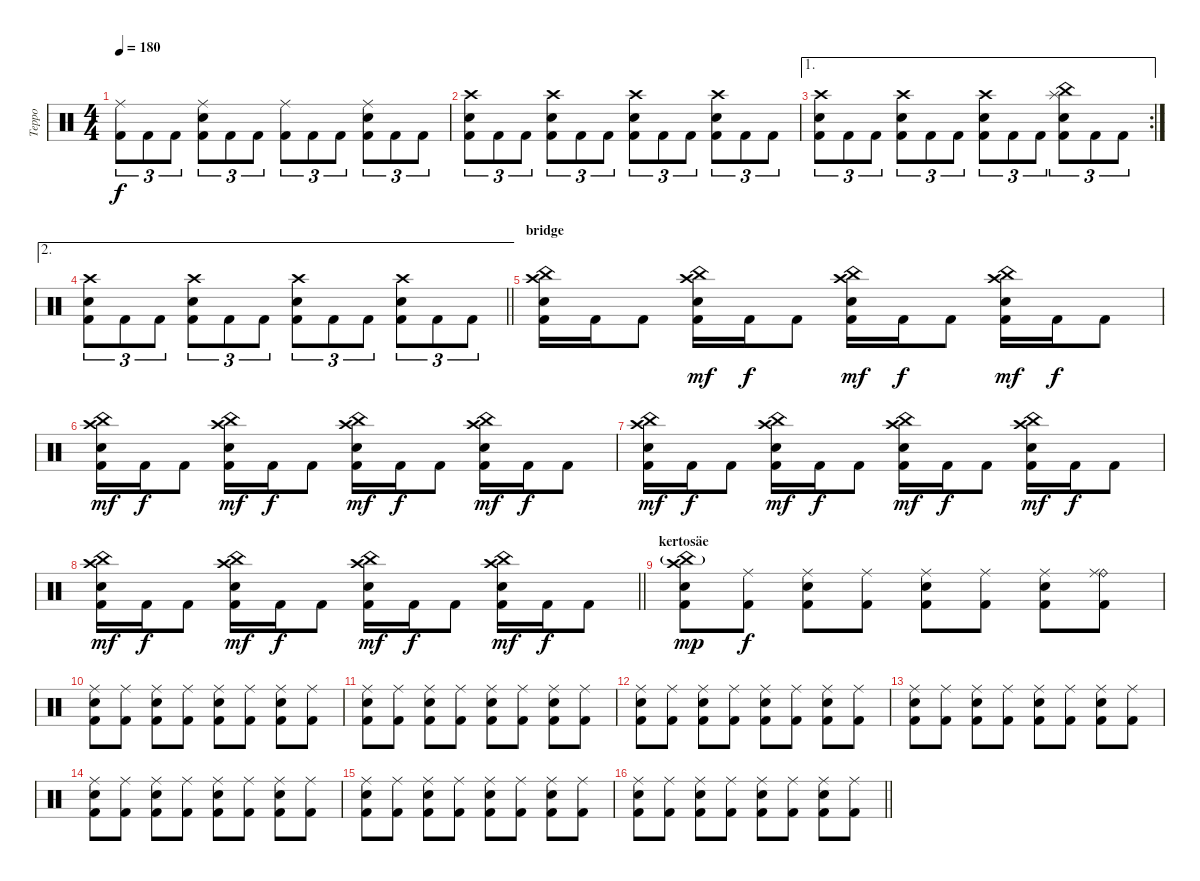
\track ("Teppo" "Teppo") {instrument percussion}
\staff {score}
\articulation defaults
\ts (4 4)
\tempo 180
\clef neutral
\ks c
("Ride (middle)" "Kick (hit) 2").8{tu (3 2) dy f} "Kick (hit) 2".8{tu (3 2)} "Kick (hit) 2".8{tu (3 2)} ("Ride (middle)" "Electric Snare (hit)" "Kick (hit) 2").8{tu (3 2)} "Kick (hit) 2".8{tu (3 2)} "Kick (hit) 2".8{tu (3 2)} ("Ride (middle)" "Kick (hit) 2").8{tu (3 2)} "Kick (hit) 2".8{tu (3 2)} "Kick (hit) 2".8{tu (3 2)} ("Ride (middle)" "Electric Snare (hit)" "Kick (hit) 2").8{tu (3 2)} "Kick (hit) 2".8{tu (3 2)} "Kick (hit) 2".8{tu (3 2)} |
("Crash high (hit)" "Electric Snare (hit)" "Kick (hit) 2").8{tu (3 2)} "Kick (hit) 2".8{tu (3 2)} "Kick (hit) 2".8{tu (3 2)} ("Crash high (hit)" "Electric Snare (hit)" "Kick (hit) 2").8{tu (3 2)} "Kick (hit) 2".8{tu (3 2)} "Kick (hit) 2".8{tu (3 2)} ("Crash high (hit)" "Electric Snare (hit)" "Kick (hit) 2").8{tu (3 2)} "Kick (hit) 2".8{tu (3 2)} "Kick (hit) 2".8{tu (3 2)} ("Crash high (hit)" "Electric Snare (hit)" "Kick (hit) 2").8{tu (3 2)} "Kick (hit) 2".8{tu (3 2)} "Kick (hit) 2".8{tu (3 2)} |
\ae 1
\rc 2
("Crash high (hit)" "Electric Snare (hit)" "Kick (hit) 2").8{tu (3 2)} "Kick (hit) 2".8{tu (3 2)} "Kick (hit) 2".8{tu (3 2)} ("Crash high (hit)" "Electric Snare (hit)" "Kick (hit) 2").8{tu (3 2)} "Kick (hit) 2".8{tu (3 2)} "Kick (hit) 2".8{tu (3 2)} ("Crash high (hit)" "Electric Snare (hit)" "Kick (hit) 2").8{tu (3 2)} "Kick (hit) 2".8{tu (3 2)} "Kick (hit) 2".8{tu (3 2)} ("China (hit)" "Splash (hit)" "Electric Snare (hit)" "Kick (hit) 2").8{tu (3 2)} "Kick (hit) 2".8{tu (3 2)} "Kick (hit) 2".8{tu (3 2)} |
\ae 2
\barLineRight lightlight
("Crash high (hit)" "Electric Snare (hit)" "Kick (hit) 2").8{tu (3 2)} "Kick (hit) 2".8{tu (3 2)} "Kick (hit) 2".8{tu (3 2)} ("Crash high (hit)" "Electric Snare (hit)" "Kick (hit) 2").8{tu (3 2)} "Kick (hit) 2".8{tu (3 2)} "Kick (hit) 2".8{tu (3 2)} ("Crash high (hit)" "Electric Snare (hit)" "Kick (hit) 2").8{tu (3 2)} "Kick (hit) 2".8{tu (3 2)} "Kick (hit) 2".8{tu (3 2)} ("Crash high (hit)" "Electric Snare (hit)" "Kick (hit) 2").8{tu (3 2)} "Kick (hit) 2".8{tu (3 2)} "Kick (hit) 2".8{tu (3 2)} |
\section ("" "bridge")
("Crash high (hit)" "China (hit)" "Electric Snare (hit)" "Kick (hit) 2").16 "Kick (hit) 2".16 "Kick (hit) 2".8 ("Crash high (hit)" "China (hit)" "Electric Snare (hit)" "Kick (hit) 2").16{dy mf} "Kick (hit) 2".16{dy f} "Kick (hit) 2".8 ("Crash high (hit)" "China (hit)" "Electric Snare (hit)" "Kick (hit) 2").16{dy mf} "Kick (hit) 2".16{dy f} "Kick (hit) 2".8 ("Crash high (hit)" "China (hit)" "Electric Snare (hit)" "Kick (hit) 2").16{dy mf} "Kick (hit) 2".16{dy f} "Kick (hit) 2".8 |
("Crash high (hit)" "China (hit)" "Electric Snare (hit)" "Kick (hit) 2").16{dy mf} "Kick (hit) 2".16{dy f} "Kick (hit) 2".8 ("Crash high (hit)" "China (hit)" "Electric Snare (hit)" "Kick (hit) 2").16{dy mf} "Kick (hit) 2".16{dy f} "Kick (hit) 2".8 ("Crash high (hit)" "China (hit)" "Electric Snare (hit)" "Kick (hit) 2").16{dy mf} "Kick (hit) 2".16{dy f} "Kick (hit) 2".8 ("Crash high (hit)" "China (hit)" "Electric Snare (hit)" "Kick (hit) 2").16{dy mf} "Kick (hit) 2".16{dy f} "Kick (hit) 2".8 |
("Crash high (hit)" "China (hit)" "Electric Snare (hit)" "Kick (hit) 2").16{dy mf} "Kick (hit) 2".16{dy f} "Kick (hit) 2".8 ("Crash high (hit)" "China (hit)" "Electric Snare (hit)" "Kick (hit) 2").16{dy mf} "Kick (hit) 2".16{dy f} "Kick (hit) 2".8 ("Crash high (hit)" "China (hit)" "Electric Snare (hit)" "Kick (hit) 2").16{dy mf} "Kick (hit) 2".16{dy f} "Kick (hit) 2".8 ("Crash high (hit)" "China (hit)" "Electric Snare (hit)" "Kick (hit) 2").16{dy mf} "Kick (hit) 2".16{dy f} "Kick (hit) 2".8 |
\barLineRight lightlight
("Crash high (hit)" "China (hit)" "Electric Snare (hit)" "Kick (hit) 2").16{dy mf} "Kick (hit) 2".16{dy f} "Kick (hit) 2".8 ("Crash high (hit)" "China (hit)" "Electric Snare (hit)" "Kick (hit) 2").16{dy mf} "Kick (hit) 2".16{dy f} "Kick (hit) 2".8 ("Crash high (hit)" "China (hit)" "Electric Snare (hit)" "Kick (hit) 2").16{dy mf} "Kick (hit) 2".16{dy f} "Kick (hit) 2".8 ("Crash high (hit)" "China (hit)" "Electric Snare (hit)" "Kick (hit) 2").16{dy mf} "Kick (hit) 2".16{dy f} "Kick (hit) 2".8 |
\section ("" "kertosäe")
("Crash high (hit)" "China (hit)"{g} "Electric Snare (hit)" "Kick (hit) 2").8{dy mp} ("Ride (middle)" "Kick (hit) 2").8{dy f} ("Ride (middle)" "Electric Snare (hit)" "Kick (hit) 2").8 ("Ride (middle)" "Kick (hit) 2").8 ("Ride (middle)" "Electric Snare (hit)" "Kick (hit) 2").8 ("Ride (middle)" "Kick (hit) 2").8 ("Ride (middle)" "Electric Snare (hit)" "Kick (hit) 2").8 ("Ride (bell)" "Ride (middle)" "Kick (hit) 2").8 |
("Ride (middle)" "Electric Snare (hit)" "Kick (hit) 2").8 ("Ride (middle)" "Kick (hit) 2").8 ("Ride (middle)" "Electric Snare (hit)" "Kick (hit) 2").8 ("Ride (middle)" "Kick (hit) 2").8 ("Ride (middle)" "Electric Snare (hit)" "Kick (hit) 2").8 ("Ride (middle)" "Kick (hit) 2").8 ("Ride (middle)" "Electric Snare (hit)" "Kick (hit) 2").8 ("Ride (middle)" "Kick (hit) 2").8 |
("Ride (middle)" "Electric Snare (hit)" "Kick (hit) 2").8 ("Ride (middle)" "Kick (hit) 2").8 ("Ride (middle)" "Electric Snare (hit)" "Kick (hit) 2").8 ("Ride (middle)" "Kick (hit) 2").8 ("Ride (middle)" "Electric Snare (hit)" "Kick (hit) 2").8 ("Ride (middle)" "Kick (hit) 2").8 ("Ride (middle)" "Electric Snare (hit)" "Kick (hit) 2").8 ("Ride (middle)" "Kick (hit) 2").8 |
("Ride (middle)" "Electric Snare (hit)" "Kick (hit) 2").8 ("Ride (middle)" "Kick (hit) 2").8 ("Ride (middle)" "Electric Snare (hit)" "Kick (hit) 2").8 ("Ride (middle)" "Kick (hit) 2").8 ("Ride (middle)" "Electric Snare (hit)" "Kick (hit) 2").8 ("Ride (middle)" "Kick (hit) 2").8 ("Ride (middle)" "Electric Snare (hit)" "Kick (hit) 2").8 ("Ride (middle)" "Kick (hit) 2").8 |
("Ride (middle)" "Electric Snare (hit)" "Kick (hit) 2").8 ("Ride (middle)" "Kick (hit) 2").8 ("Ride (middle)" "Electric Snare (hit)" "Kick (hit) 2").8 ("Ride (middle)" "Kick (hit) 2").8 ("Ride (middle)" "Electric Snare (hit)" "Kick (hit) 2").8 ("Ride (middle)" "Kick (hit) 2").8 ("Ride (middle)" "Electric Snare (hit)" "Kick (hit) 2").8 ("Ride (middle)" "Kick (hit) 2").8 |
("Ride (middle)" "Electric Snare (hit)" "Kick (hit) 2").8 ("Ride (middle)" "Kick (hit) 2").8 ("Ride (middle)" "Electric Snare (hit)" "Kick (hit) 2").8 ("Ride (middle)" "Kick (hit) 2").8 ("Ride (middle)" "Electric Snare (hit)" "Kick (hit) 2").8 ("Ride (middle)" "Kick (hit) 2").8 ("Ride (middle)" "Electric Snare (hit)" "Kick (hit) 2").8 ("Ride (middle)" "Kick (hit) 2").8 |
("Ride (middle)" "Electric Snare (hit)" "Kick (hit) 2").8 ("Ride (middle)" "Kick (hit) 2").8 ("Ride (middle)" "Electric Snare (hit)" "Kick (hit) 2").8 ("Ride (middle)" "Kick (hit) 2").8 ("Ride (middle)" "Electric Snare (hit)" "Kick (hit) 2").8 ("Ride (middle)" "Kick (hit) 2").8 ("Ride (middle)" "Electric Snare (hit)" "Kick (hit) 2").8 ("Ride (middle)" "Kick (hit) 2").8 |
\barLineRight lightlight
("Ride (middle)" "Electric Snare (hit)" "Kick (hit) 2").8 ("Ride (middle)" "Kick (hit) 2").8 ("Ride (middle)" "Electric Snare (hit)" "Kick (hit) 2").8 ("Ride (middle)" "Kick (hit) 2").8 ("Ride (middle)" "Electric Snare (hit)" "Kick (hit) 2").8 ("Ride (middle)" "Kick (hit) 2").8 ("Ride (middle)" "Electric Snare (hit)" "Kick (hit) 2").8 ("Ride (middle)" "Kick (hit) 2").8
